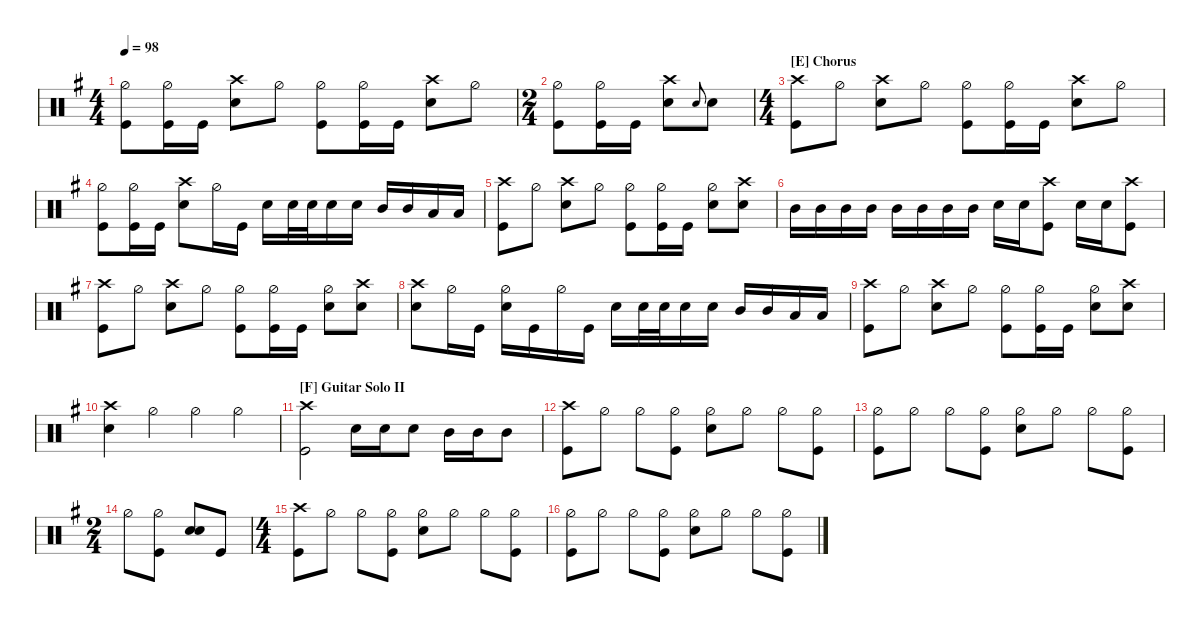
\defaultSystemsLayout 4
\hideDynamics
\bracketExtendMode nobrackets
\otherSystemsTrackNameOrientation horizontal
\track ("Drums" " ") {instrument percussion}
\staff
\articulation defaults
\ts (4 4)
\tempo 98
\clef neutral
\ks eminor
("Hi-Hat (half)"{acc forcenatural} "Kick (hit)"{acc forcenatural}).8{dy f} ("Hi-Hat (half)"{acc forcenatural} "Kick (hit)"{acc forcenatural}).16 "Kick (hit)"{acc forcenatural}.16 ("Snare (hit) 2"{acc forcenatural} "Crash high (hit)"{acc forcenatural}).8 "Hi-Hat (half)"{acc forcenatural}.8 ("Hi-Hat (half)"{acc forcenatural} "Kick (hit)"{acc forcenatural}).8 ("Hi-Hat (half)"{acc forcenatural} "Kick (hit)"{acc forcenatural}).16 "Kick (hit)"{acc forcenatural}.16 ("Snare (hit) 2"{acc forcenatural} "Crash high (hit)"{acc forcenatural}).8 "Hi-Hat (half)"{acc forcenatural}.8 |
\ts (2 4)
\beaming (8 2 2)
("Hi-Hat (half)"{acc forcenatural} "Kick (hit)"{acc forcenatural}).8 ("Hi-Hat (half)"{acc forcenatural} "Kick (hit)"{acc forcenatural}).16 "Kick (hit)"{acc forcenatural}.16 ("Snare (hit) 2"{acc forcenatural} "Crash high (hit)"{acc forcenatural}).8 "Snare (hit) 2"{acc forcenatural}.8{gr onbeat} "Snare (hit) 2"{acc forcenatural}.8 |
\ts (4 4)
\beaming (8 2 2 2 2)
\section ("E" "Chorus")
("Kick (hit)"{acc forcenatural} "Crash high (hit)"{acc forcenatural}).8 "Hi-Hat (half)"{acc forcenatural}.8 ("Snare (hit) 2"{acc forcenatural} "Crash high (hit)"{acc forcenatural}).8 "Hi-Hat (half)"{acc forcenatural}.8 ("Hi-Hat (half)"{acc forcenatural} "Kick (hit)"{acc forcenatural}).8 ("Hi-Hat (half)"{acc forcenatural} "Kick (hit)"{acc forcenatural}).16 "Kick (hit)"{acc forcenatural}.16 ("Snare (hit) 2"{acc forcenatural} "Crash high (hit)"{acc forcenatural}).8 "Hi-Hat (half)"{acc forcenatural}.8 |
("Hi-Hat (half)"{acc forcenatural} "Kick (hit)"{acc forcenatural}).8 ("Hi-Hat (half)"{acc forcenatural} "Kick (hit)"{acc forcenatural}).16 "Kick (hit)"{acc forcenatural}.16 ("Snare (hit) 2"{acc forcenatural} "Crash high (hit)"{acc forcenatural}).8 "Hi-Hat (half)"{acc forcenatural}.16 "Kick (hit)"{acc forcenatural}.16 "Snare (hit) 2"{acc forcenatural}.16 "Snare (hit) 2"{acc forcenatural}.32 "Snare (hit) 2"{acc forcenatural}.32 "Snare (hit) 2"{acc forcenatural}.16 "Snare (hit) 2"{acc forcenatural}.16 "Mid Tom (hit)"{acc forcenatural}.16{dy fff} "Mid Tom (hit)"{acc forcenatural}.16 "Low Tom (hit)"{acc forcenatural}.16 "Low Tom (hit)"{acc forcenatural}.16 |
("Kick (hit)"{acc forcenatural} "Crash high (hit)"{acc forcenatural}).8{dy f} "Hi-Hat (half)"{acc forcenatural}.8 ("Snare (hit) 2"{acc forcenatural} "Crash high (hit)"{acc forcenatural}).8 "Hi-Hat (half)"{acc forcenatural}.8 ("Hi-Hat (half)"{acc forcenatural} "Kick (hit)"{acc forcenatural}).8 ("Hi-Hat (half)"{acc forcenatural} "Kick (hit)"{acc forcenatural}).16 "Kick (hit)"{acc forcenatural}.16 ("Snare (hit) 2"{acc forcenatural} "Hi-Hat (half)"{acc forcenatural}).8 ("Snare (hit) 2"{acc forcenatural} "Crash high (hit)"{acc forcenatural}).8 |
"Mid Tom (hit)"{acc forcenatural}.16{dy fff} "Mid Tom (hit)"{acc forcenatural}.16 "Mid Tom (hit)"{acc forcenatural}.16 "Mid Tom (hit)"{acc forcenatural}.16 "Mid Tom (hit)"{acc forcenatural}.16 "Mid Tom (hit)"{acc forcenatural}.16 "Mid Tom (hit)"{acc forcenatural}.16 "Mid Tom (hit)"{acc forcenatural}.16 "Snare (hit) 2"{acc forcenatural}.16{dy f} "Snare (hit) 2"{acc forcenatural}.16 ("Kick (hit)"{acc forcenatural} "Crash high (hit)"{acc forcenatural}).8 "Snare (hit) 2"{acc forcenatural}.16 "Snare (hit) 2"{acc forcenatural}.16 ("Kick (hit)"{acc forcenatural} "Crash high (hit)"{acc forcenatural}).8 |
("Kick (hit)"{acc forcenatural} "Crash high (hit)"{acc forcenatural}).8 "Hi-Hat (half)"{acc forcenatural}.8 ("Snare (hit) 2"{acc forcenatural} "Crash high (hit)"{acc forcenatural}).8 "Hi-Hat (half)"{acc forcenatural}.8 ("Hi-Hat (half)"{acc forcenatural} "Kick (hit)"{acc forcenatural}).8 ("Hi-Hat (half)"{acc forcenatural} "Kick (hit)"{acc forcenatural}).16 "Kick (hit)"{acc forcenatural}.16 ("Snare (hit) 2"{acc forcenatural} "Hi-Hat (half)"{acc forcenatural}).8 ("Snare (hit) 2"{acc forcenatural} "Crash high (hit)"{acc forcenatural}).8 |
("Snare (hit) 2"{acc forcenatural} "Crash high (hit)"{acc forcenatural}).8 "Hi-Hat (half)"{acc forcenatural}.16 "Kick (hit)"{acc forcenatural}.16 ("Snare (hit) 2"{acc forcenatural} "Hi-Hat (half)"{acc forcenatural}).16 "Kick (hit)"{acc forcenatural}.16 "Hi-Hat (half)"{acc forcenatural}.16 "Kick (hit)"{acc forcenatural}.16 "Snare (hit) 2"{acc forcenatural}.16 "Snare (hit) 2"{acc forcenatural}.32 "Snare (hit) 2"{acc forcenatural}.32 "Snare (hit) 2"{acc forcenatural}.16 "Snare (hit) 2"{acc forcenatural}.16 "Mid Tom (hit)"{acc forcenatural}.16{dy fff} "Mid Tom (hit)"{acc forcenatural}.16 "Low Tom (hit)"{acc forcenatural}.16 "Low Tom (hit)"{acc forcenatural}.16 |
("Kick (hit)"{acc forcenatural} "Crash high (hit)"{acc forcenatural}).8{dy f} "Hi-Hat (half)"{acc forcenatural}.8 ("Snare (hit) 2"{acc forcenatural} "Crash high (hit)"{acc forcenatural}).8 "Hi-Hat (half)"{acc forcenatural}.8 ("Hi-Hat (half)"{acc forcenatural} "Kick (hit)"{acc forcenatural}).8 ("Hi-Hat (half)"{acc forcenatural} "Kick (hit)"{acc forcenatural}).16 "Kick (hit)"{acc forcenatural}.16 ("Snare (hit) 2"{acc forcenatural} "Hi-Hat (half)"{acc forcenatural}).8 ("Snare (hit) 2"{acc forcenatural} "Crash high (hit)"{acc forcenatural}).8 |
("Snare (hit) 2"{acc forcenatural} "Crash high (hit)"{acc forcenatural}).4 "Hi-Hat (half)"{acc forcenatural}.4 "Hi-Hat (half)"{acc forcenatural}.4 "Hi-Hat (half)"{acc forcenatural}.4 |
\section ("F" "Guitar Solo II")
("Kick (hit)"{acc forcenatural} "Crash high (hit)"{acc forcenatural}).2 "Snare (hit) 2"{acc forcenatural}.16 "Snare (hit) 2"{acc forcenatural}.16 "Snare (hit) 2"{acc forcenatural}.8 "Mid Tom (hit)"{acc forcenatural}.16{dy fff} "Mid Tom (hit)"{acc forcenatural}.16 "Mid Tom (hit)"{acc forcenatural}.8 |
("Kick (hit)"{acc forcenatural} "Crash high (hit)"{acc forcenatural}).8{dy f} "Hi-Hat (half)"{acc forcenatural}.8 "Hi-Hat (half)"{acc forcenatural}.8 ("Hi-Hat (half)"{acc forcenatural} "Kick (hit)"{acc forcenatural}).8 ("Hi-Hat (half)"{acc forcenatural} "Snare (hit) 2"{acc forcenatural}).8 "Hi-Hat (half)"{acc forcenatural}.8 "Hi-Hat (half)"{acc forcenatural}.8 ("Hi-Hat (half)"{acc forcenatural} "Kick (hit)"{acc forcenatural}).8 |
("Hi-Hat (half)"{acc forcenatural} "Kick (hit)"{acc forcenatural}).8 "Hi-Hat (half)"{acc forcenatural}.8 "Hi-Hat (half)"{acc forcenatural}.8 ("Hi-Hat (half)"{acc forcenatural} "Kick (hit)"{acc forcenatural}).8 ("Hi-Hat (half)"{acc forcenatural} "Snare (hit) 2"{acc forcenatural}).8 "Hi-Hat (half)"{acc forcenatural}.8 "Hi-Hat (half)"{acc forcenatural}.8 ("Hi-Hat (half)"{acc forcenatural} "Kick (hit)"{acc forcenatural}).8 |
\ts (2 4)
\beaming (8 2 2)
"Hi-Hat (half)"{acc forcenatural}.8 ("Hi-Hat (half)"{acc forcenatural} "Kick (hit)"{acc forcenatural}).8 ("Snare (hit) 2"{acc forcenatural} "Snare (hit) 2"{acc forcenatural}).8 "Kick (hit)"{acc forcenatural}.8 |
\ts (4 4)
\beaming (8 2 2 2 2)
("Kick (hit)"{acc forcenatural} "Crash high (hit)"{acc forcenatural}).8 "Hi-Hat (half)"{acc forcenatural}.8 "Hi-Hat (half)"{acc forcenatural}.8 ("Hi-Hat (half)"{acc forcenatural} "Kick (hit)"{acc forcenatural}).8 ("Hi-Hat (half)"{acc forcenatural} "Snare (hit) 2"{acc forcenatural}).8 "Hi-Hat (half)"{acc forcenatural}.8 "Hi-Hat (half)"{acc forcenatural}.8 ("Hi-Hat (half)"{acc forcenatural} "Kick (hit)"{acc forcenatural}).8 |
("Hi-Hat (half)"{acc forcenatural} "Kick (hit)"{acc forcenatural}).8 "Hi-Hat (half)"{acc forcenatural}.8 "Hi-Hat (half)"{acc forcenatural}.8 ("Hi-Hat (half)"{acc forcenatural} "Kick (hit)"{acc forcenatural}).8 ("Hi-Hat (half)"{acc forcenatural} "Snare (hit) 2"{acc forcenatural}).8 "Hi-Hat (half)"{acc forcenatural}.8 "Hi-Hat (half)"{acc forcenatural}.8 ("Hi-Hat (half)"{acc forcenatural} "Kick (hit)"{acc forcenatural}).8
